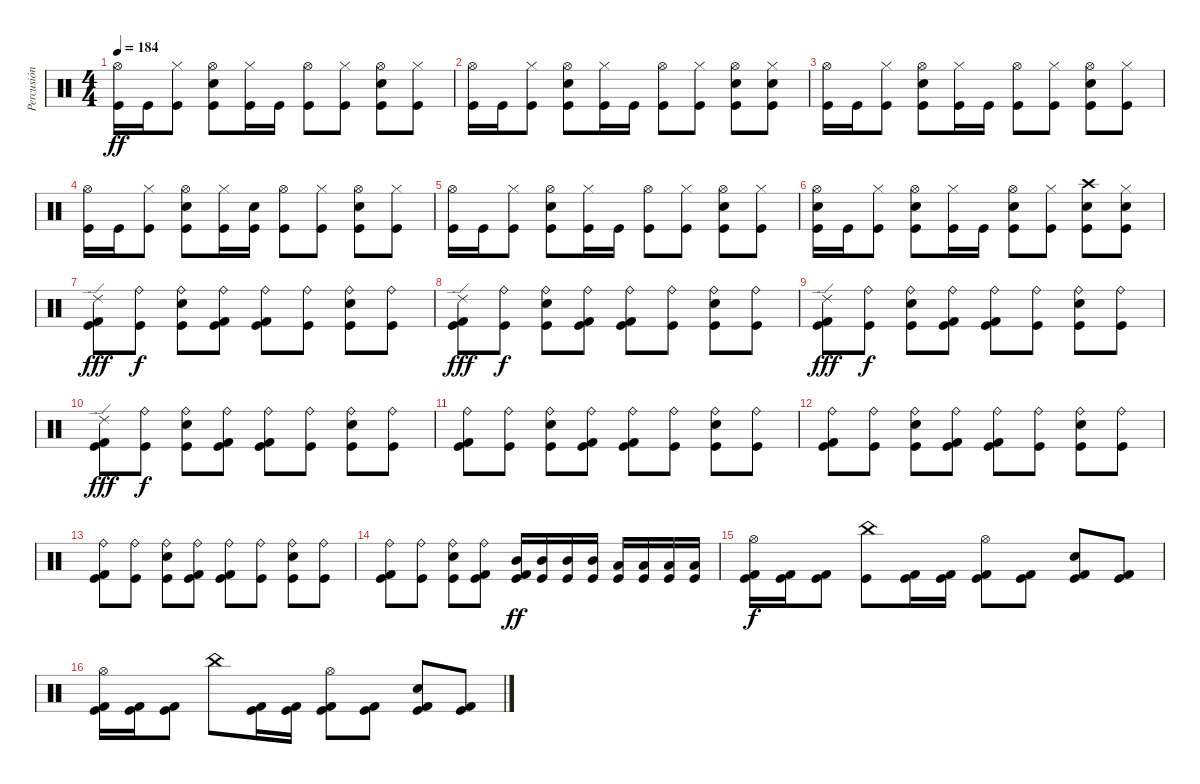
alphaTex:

\track ("Percusión" "Percusión") {instrument percussion}
\staff {score}
\articulation defaults
\ts (4 4)
\tempo 184
\clef neutral
\ks c
("Hi-Hat (open)" "Kick (hit)").16{dy ff} "Kick (hit)".16 ("Hi-Hat (closed)" "Kick (hit)").8 ("Hi-Hat (open)" "Electric Snare (hit)" "Kick (hit)").8 ("Hi-Hat (closed)" "Kick (hit)").16 "Kick (hit)".16 ("Hi-Hat (open)" "Kick (hit)").8 ("Hi-Hat (closed)" "Kick (hit)").8 ("Hi-Hat (open)" "Electric Snare (hit)" "Kick (hit)").8 ("Hi-Hat (closed)" "Kick (hit)").8 |
("Hi-Hat (open)" "Kick (hit)").16 "Kick (hit)".16 ("Hi-Hat (closed)" "Kick (hit)").8 ("Hi-Hat (open)" "Electric Snare (hit)" "Kick (hit)").8 ("Hi-Hat (closed)" "Kick (hit)").16 "Kick (hit)".16 ("Hi-Hat (open)" "Kick (hit)").8 ("Hi-Hat (closed)" "Kick (hit)").8 ("Hi-Hat (open)" "Electric Snare (hit)" "Kick (hit)").8 ("Hi-Hat (closed)" "Electric Snare (hit)" "Kick (hit)").8 |
("Hi-Hat (open)" "Kick (hit)").16 "Kick (hit)".16 ("Hi-Hat (closed)" "Kick (hit)").8 ("Hi-Hat (open)" "Electric Snare (hit)" "Kick (hit)").8 ("Hi-Hat (closed)" "Kick (hit)").16 "Kick (hit)".16 ("Hi-Hat (open)" "Kick (hit)").8 ("Hi-Hat (closed)" "Kick (hit)").8 ("Hi-Hat (open)" "Electric Snare (hit)" "Kick (hit)").8 ("Hi-Hat (closed)" "Kick (hit)").8 |
("Hi-Hat (open)" "Kick (hit)").16 "Kick (hit)".16 ("Hi-Hat (closed)" "Kick (hit)").8 ("Hi-Hat (open)" "Electric Snare (hit)" "Kick (hit)").8 ("Hi-Hat (closed)" "Kick (hit)").16 ("Electric Snare (hit)" "Kick (hit)").16 ("Hi-Hat (open)" "Kick (hit)").8 ("Hi-Hat (closed)" "Kick (hit)").8 ("Hi-Hat (open)" "Electric Snare (hit)" "Kick (hit)").8 ("Hi-Hat (closed)" "Kick (hit)").8 |
("Hi-Hat (open)" "Kick (hit)").16 "Kick (hit)".16 ("Hi-Hat (closed)" "Kick (hit)").8 ("Hi-Hat (open)" "Electric Snare (hit)" "Kick (hit)").8 ("Hi-Hat (closed)" "Kick (hit)").16 "Kick (hit)".16 ("Hi-Hat (open)" "Kick (hit)").8 ("Hi-Hat (closed)" "Kick (hit)").8 ("Hi-Hat (open)" "Electric Snare (hit)" "Kick (hit)").8 ("Hi-Hat (closed)" "Kick (hit)").8 |
("Hi-Hat (open)" "Electric Snare (hit)" "Kick (hit)").16 "Kick (hit)".16 ("Hi-Hat (closed)" "Kick (hit)").8 ("Hi-Hat (open)" "Electric Snare (hit)" "Kick (hit)").8 ("Hi-Hat (closed)" "Kick (hit)").16 "Kick (hit)".16 ("Hi-Hat (open)" "Electric Snare (hit)" "Kick (hit)").8 ("Hi-Hat (closed)" "Kick (hit)").8 ("Crash high (hit)" "Electric Snare (hit)" "Kick (hit)").8 ("Hi-Hat (closed)" "Electric Snare (hit)" "Kick (hit)").8 |
("Ride (edge) 2" "Kick (hit) 2" "Kick (hit)").8{dy fff} ("Ride (bell)" "Kick (hit)").8{dy f} ("Ride (bell)" "Electric Snare (hit)" "Kick (hit)").8 ("Ride (bell)" "Kick (hit) 2" "Kick (hit)").8 ("Ride (bell)" "Kick (hit) 2" "Kick (hit)").8 ("Ride (bell)" "Kick (hit)").8 ("Ride (bell)" "Electric Snare (hit)" "Kick (hit)").8 ("Ride (bell)" "Kick (hit)").8 |
("Ride (edge) 2" "Kick (hit) 2" "Kick (hit)").8{dy fff} ("Ride (bell)" "Kick (hit)").8{dy f} ("Ride (bell)" "Electric Snare (hit)" "Kick (hit)").8 ("Ride (bell)" "Kick (hit) 2" "Kick (hit)").8 ("Ride (bell)" "Kick (hit) 2" "Kick (hit)").8 ("Ride (bell)" "Kick (hit)").8 ("Ride (bell)" "Electric Snare (hit)" "Kick (hit)").8 ("Ride (bell)" "Kick (hit)").8 |
("Ride (edge) 2" "Kick (hit) 2" "Kick (hit)").8{dy fff} ("Ride (bell)" "Kick (hit)").8{dy f} ("Ride (bell)" "Electric Snare (hit)" "Kick (hit)").8 ("Ride (bell)" "Kick (hit) 2" "Kick (hit)").8 ("Ride (bell)" "Kick (hit) 2" "Kick (hit)").8 ("Ride (bell)" "Kick (hit)").8 ("Ride (bell)" "Electric Snare (hit)" "Kick (hit)").8 ("Ride (bell)" "Kick (hit)").8 |
("Ride (edge) 2" "Kick (hit) 2" "Kick (hit)").8{dy fff} ("Ride (bell)" "Kick (hit)").8{dy f} ("Ride (bell)" "Electric Snare (hit)" "Kick (hit)").8 ("Ride (bell)" "Kick (hit) 2" "Kick (hit)").8 ("Ride (bell)" "Kick (hit) 2" "Kick (hit)").8 ("Ride (bell)" "Kick (hit)").8 ("Ride (bell)" "Electric Snare (hit)" "Kick (hit)").8 ("Ride (bell)" "Kick (hit)").8 |
("Ride (bell)" "Kick (hit) 2" "Kick (hit)").8 ("Ride (bell)" "Kick (hit)").8 ("Ride (bell)" "Electric Snare (hit)" "Kick (hit)").8 ("Ride (bell)" "Kick (hit) 2" "Kick (hit)").8 ("Ride (bell)" "Kick (hit) 2" "Kick (hit)").8 ("Ride (bell)" "Kick (hit)").8 ("Ride (bell)" "Electric Snare (hit)" "Kick (hit)").8 ("Ride (bell)" "Kick (hit)").8 |
("Ride (bell)" "Kick (hit) 2" "Kick (hit)").8 ("Ride (bell)" "Kick (hit)").8 ("Ride (bell)" "Electric Snare (hit)" "Kick (hit)").8 ("Ride (bell)" "Kick (hit) 2" "Kick (hit)").8 ("Ride (bell)" "Kick (hit) 2" "Kick (hit)").8 ("Ride (bell)" "Kick (hit)").8 ("Ride (bell)" "Electric Snare (hit)" "Kick (hit)").8 ("Ride (bell)" "Kick (hit)").8 |
("Ride (bell)" "Kick (hit) 2" "Kick (hit)").8 ("Ride (bell)" "Kick (hit)").8 ("Ride (bell)" "Electric Snare (hit)" "Kick (hit)").8 ("Ride (bell)" "Kick (hit) 2" "Kick (hit)").8 ("Ride (bell)" "Kick (hit) 2" "Kick (hit)").8 ("Ride (bell)" "Kick (hit)").8 ("Ride (bell)" "Electric Snare (hit)" "Kick (hit)").8 ("Ride (bell)" "Kick (hit)").8 |
("Ride (bell)" "Kick (hit) 2" "Kick (hit)").8 ("Ride (bell)" "Kick (hit)").8 ("Ride (bell)" "Electric Snare (hit)" "Kick (hit)").8 ("Ride (bell)" "Kick (hit) 2" "Kick (hit)").8 ("Mid Tom (hit)" "Kick (hit) 2" "Kick (hit)").16{dy ff} ("Mid Tom (hit)" "Kick (hit)").16 ("Mid Tom (hit)" "Kick (hit)").16 ("Mid Tom (hit)" "Kick (hit)").16 ("Low Tom (hit)" "Kick (hit)").16 ("Low Floor Tom (hit)" "Kick (hit)").16 ("Low Floor Tom (hit)" "Kick (hit)").16 ("Low Floor Tom (hit)" "Kick (hit)").16 |
("Hi-Hat (open)" "Kick (hit) 2" "Kick (hit)").16{dy f} ("Kick (hit) 2" "Kick (hit)").16 ("Kick (hit) 2" "Kick (hit)").8 ("China (hit)" "Kick (hit)").8 ("Kick (hit) 2" "Kick (hit)").16 ("Kick (hit) 2" "Kick (hit)").16 ("Hi-Hat (open)" "Kick (hit) 2" "Kick (hit)").8 ("Kick (hit) 2" "Kick (hit)").8 ("Electric Snare (hit)" "Kick (hit) 2" "Kick (hit)").8 ("Kick (hit) 2" "Kick (hit)").8 |
("Hi-Hat (open)" "Kick (hit) 2" "Kick (hit)").16 ("Kick (hit) 2" "Kick (hit)").16 ("Kick (hit) 2" "Kick (hit)").8 "China (hit)".8 ("Kick (hit) 2" "Kick (hit)").16 ("Kick (hit) 2" "Kick (hit)").16 ("Hi-Hat (open)" "Kick (hit) 2" "Kick (hit)").8 ("Kick (hit) 2" "Kick (hit)").8 ("Electric Snare (hit)" "Kick (hit) 2" "Kick (hit)").8 ("Kick (hit) 2" "Kick (hit)").8
